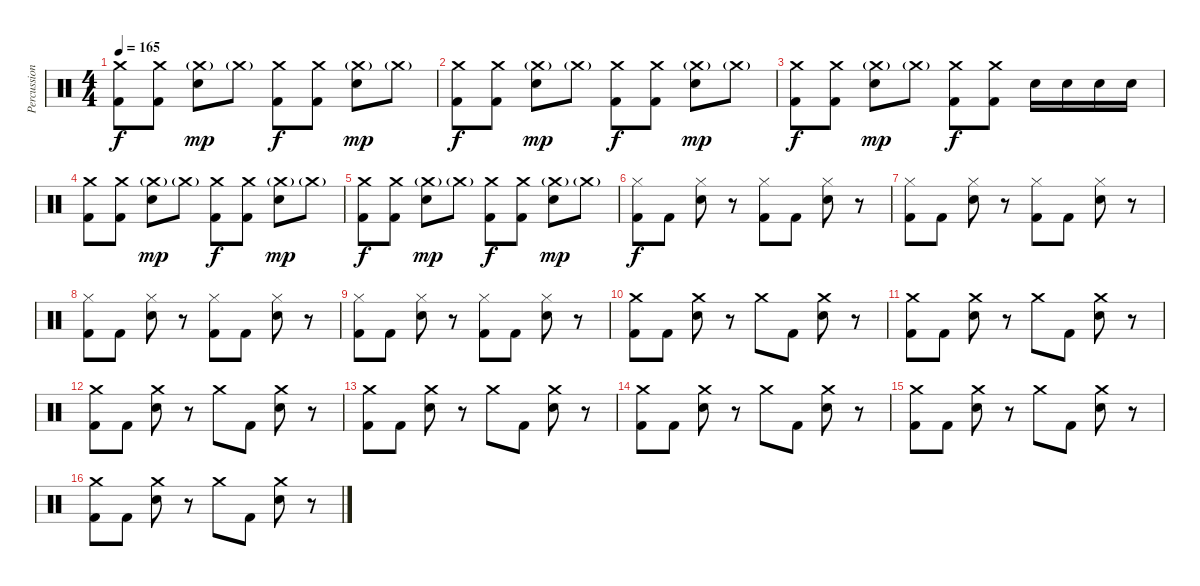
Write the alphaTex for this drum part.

\track ("Percussion" "Percussion") {instrument percussion}
\staff {score}
\articulation defaults
\ts (4 4)
\tempo 165
\clef neutral
\ks c
("Crash medium (hit)" "Kick (hit) 2").8{dy f} ("Crash medium (hit)" "Kick (hit) 2").8 ("Crash medium (hit)"{g} "Electric Snare (hit)").8{dy mp} "Crash medium (hit)"{g}.8 ("Crash medium (hit)" "Kick (hit) 2").8{dy f} ("Crash medium (hit)" "Kick (hit) 2").8 ("Crash medium (hit)"{g} "Electric Snare (hit)").8{dy mp} "Crash medium (hit)"{g}.8 |
("Crash medium (hit)" "Kick (hit) 2").8{dy f} ("Crash medium (hit)" "Kick (hit) 2").8 ("Crash medium (hit)"{g} "Electric Snare (hit)").8{dy mp} "Crash medium (hit)"{g}.8 ("Crash medium (hit)" "Kick (hit) 2").8{dy f} ("Crash medium (hit)" "Kick (hit) 2").8 ("Crash medium (hit)"{g} "Electric Snare (hit)").8{dy mp} "Crash medium (hit)"{g}.8 |
("Crash medium (hit)" "Kick (hit) 2").8{dy f} ("Crash medium (hit)" "Kick (hit) 2").8 ("Crash medium (hit)"{g} "Electric Snare (hit)").8{dy mp} "Crash medium (hit)"{g}.8 ("Crash medium (hit)" "Kick (hit) 2").8{dy f} ("Crash medium (hit)" "Kick (hit) 2").8 "Electric Snare (hit)".16 "Electric Snare (hit)".16 "Electric Snare (hit)".16 "Electric Snare (hit)".16 |
("Crash medium (hit)" "Kick (hit) 2").8 ("Crash medium (hit)" "Kick (hit) 2").8 ("Crash medium (hit)"{g} "Electric Snare (hit)").8{dy mp} "Crash medium (hit)"{g}.8 ("Crash medium (hit)" "Kick (hit) 2").8{dy f} ("Crash medium (hit)" "Kick (hit) 2").8 ("Crash medium (hit)"{g} "Electric Snare (hit)").8{dy mp} "Crash medium (hit)"{g}.8 |
("Crash medium (hit)" "Kick (hit) 2").8{dy f} ("Crash medium (hit)" "Kick (hit) 2").8 ("Crash medium (hit)"{g} "Electric Snare (hit)").8{dy mp} "Crash medium (hit)"{g}.8 ("Crash medium (hit)" "Kick (hit) 2").8{dy f} ("Crash medium (hit)" "Kick (hit) 2").8 ("Crash medium (hit)"{g} "Electric Snare (hit)").8{dy mp} "Crash medium (hit)"{g}.8 |
("Hi-Hat (closed)" "Kick (hit) 2").8{dy f} "Kick (hit) 2".8 ("Hi-Hat (closed)" "Electric Snare (hit)").8 r.8 ("Hi-Hat (closed)" "Kick (hit) 2").8 "Kick (hit) 2".8 ("Hi-Hat (closed)" "Electric Snare (hit)").8 r.8 |
("Hi-Hat (closed)" "Kick (hit) 2").8 "Kick (hit) 2".8 ("Hi-Hat (closed)" "Electric Snare (hit)").8 r.8 ("Hi-Hat (closed)" "Kick (hit) 2").8 "Kick (hit) 2".8 ("Hi-Hat (closed)" "Electric Snare (hit)").8 r.8 |
("Hi-Hat (closed)" "Kick (hit) 2").8 "Kick (hit) 2".8 ("Hi-Hat (closed)" "Electric Snare (hit)").8 r.8 ("Hi-Hat (closed)" "Kick (hit) 2").8 "Kick (hit) 2".8 ("Hi-Hat (closed)" "Electric Snare (hit)").8 r.8 |
("Hi-Hat (closed)" "Kick (hit) 2").8 "Kick (hit) 2".8 ("Hi-Hat (closed)" "Electric Snare (hit)").8 r.8 ("Hi-Hat (closed)" "Kick (hit) 2").8 "Kick (hit) 2".8 ("Hi-Hat (closed)" "Electric Snare (hit)").8 r.8 |
("Crash medium (hit)" "Kick (hit) 2").8 "Kick (hit) 2".8 ("Crash medium (hit)" "Electric Snare (hit)").8 r.8 "Crash medium (hit)".8 "Kick (hit) 2".8 ("Crash medium (hit)" "Electric Snare (hit)").8 r.8 |
("Crash medium (hit)" "Kick (hit) 2").8 "Kick (hit) 2".8 ("Crash medium (hit)" "Electric Snare (hit)").8 r.8 "Crash medium (hit)".8 "Kick (hit) 2".8 ("Crash medium (hit)" "Electric Snare (hit)").8 r.8 |
("Crash medium (hit)" "Kick (hit) 2").8 "Kick (hit) 2".8 ("Crash medium (hit)" "Electric Snare (hit)").8 r.8 "Crash medium (hit)".8 "Kick (hit) 2".8 ("Crash medium (hit)" "Electric Snare (hit)").8 r.8 |
("Crash medium (hit)" "Kick (hit) 2").8 "Kick (hit) 2".8 ("Crash medium (hit)" "Electric Snare (hit)").8 r.8 "Crash medium (hit)".8 "Kick (hit) 2".8 ("Crash medium (hit)" "Electric Snare (hit)").8 r.8 |
("Crash medium (hit)" "Kick (hit) 2").8 "Kick (hit) 2".8 ("Crash medium (hit)" "Electric Snare (hit)").8 r.8 "Crash medium (hit)".8 "Kick (hit) 2".8 ("Crash medium (hit)" "Electric Snare (hit)").8 r.8 |
("Crash medium (hit)" "Kick (hit) 2").8 "Kick (hit) 2".8 ("Crash medium (hit)" "Electric Snare (hit)").8 r.8 "Crash medium (hit)".8 "Kick (hit) 2".8 ("Crash medium (hit)" "Electric Snare (hit)").8 r.8 |
("Crash medium (hit)" "Kick (hit) 2").8 "Kick (hit) 2".8 ("Crash medium (hit)" "Electric Snare (hit)").8 r.8 "Crash medium (hit)".8 "Kick (hit) 2".8 ("Crash medium (hit)" "Electric Snare (hit)").8 r.8
